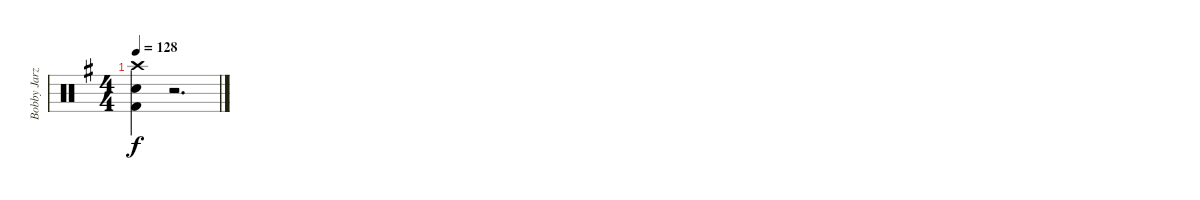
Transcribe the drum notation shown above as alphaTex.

\track ("Bobby Jarzombek" "Bobby Jarz") {instrument percussion}
\staff {score}
\articulation defaults
\ts (4 4)
\tempo 128
\clef neutral
\ks eminor
("Crash high (hit)" "Electric Snare (hit)" "Kick (hit) 2").4{dy f} r.2{d}
